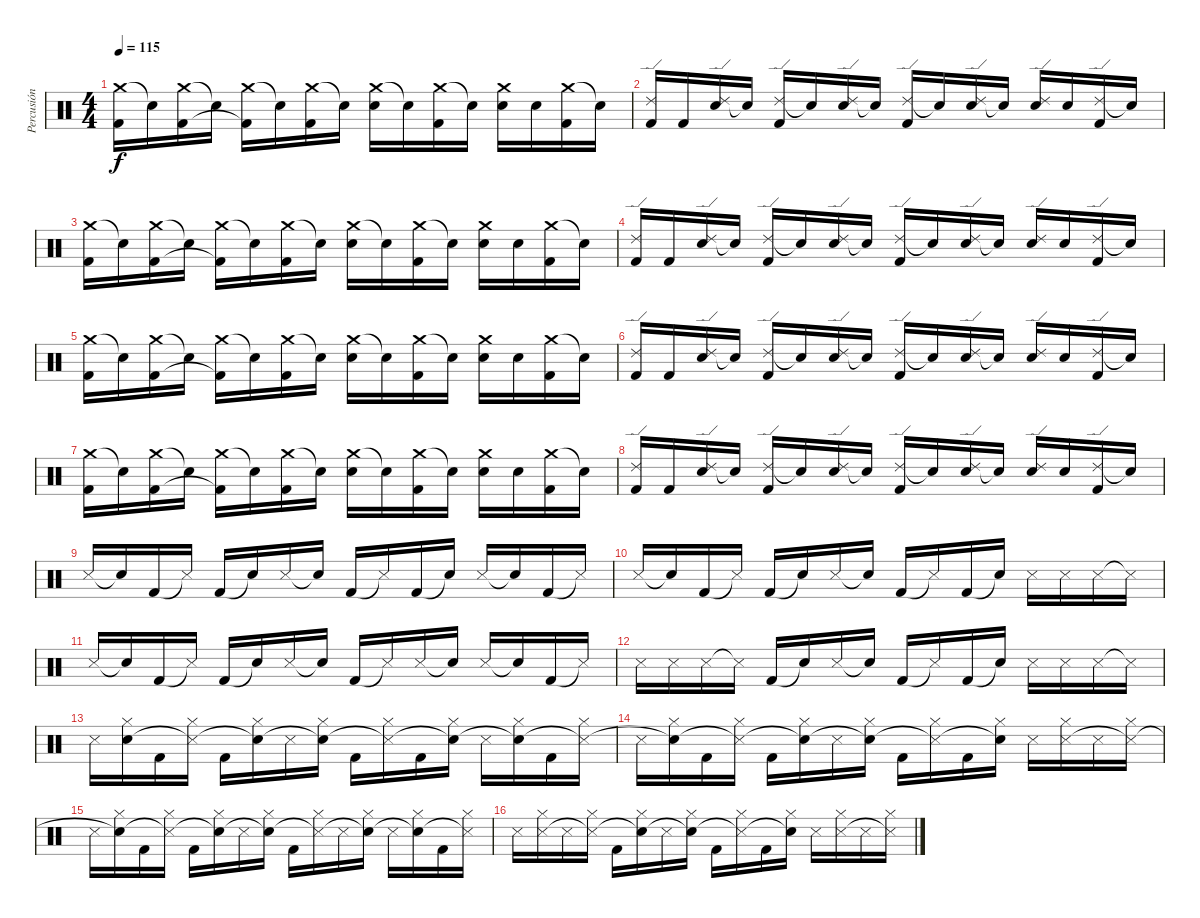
\track ("Percusión" "Percusión") {instrument percussion}
\staff {score}
\articulation defaults
\ts (4 4)
\tempo 115
\clef neutral
\ks c
("Crash medium (hit)" "Kick (hit) 2").16{dy f} "Snare (hit)"{t}.16 ("Crash medium (hit)" "Kick (hit) 2").16 "Snare (hit)"{t}.16 ("Crash medium (hit)" "Kick (hit) 2"{t}).16 "Snare (hit)"{t}.16 ("Crash medium (hit)" "Kick (hit) 2").16 "Snare (hit)"{t}.16 ("Crash medium (hit)" "Electric Snare (hit)").16 "Snare (hit)"{t}.16 ("Crash medium (hit)" "Kick (hit) 2").16 "Snare (hit)"{t}.16 ("Crash medium (hit)" "Electric Snare (hit)").16 "Electric Snare (hit)".16 ("Crash medium (hit)" "Kick (hit) 2").16 "Electric Snare (hit)"{t}.16 |
("Ride (edge) 2" "Kick (hit) 2").16 "Kick (hit) 2".16 ("Ride (edge) 2" "Electric Snare (hit)").16 "Snare (hit)"{t}.16 ("Ride (edge) 2" "Kick (hit) 2").16 "Snare (hit)"{t}.16 ("Ride (edge) 2" "Electric Snare (hit)").16 "Snare (hit)"{t}.16 ("Ride (edge) 2" "Kick (hit) 2").16 "Snare (hit)"{t}.16 ("Ride (edge) 2" "Electric Snare (hit)").16 "Snare (hit)"{t}.16 ("Ride (edge) 2" "Electric Snare (hit)").16 "Electric Snare (hit)".16 ("Ride (edge) 2" "Kick (hit) 2").16 "Snare (hit)"{t}.16 |
("Crash medium (hit)" "Kick (hit) 2").16 "Snare (hit)"{t}.16 ("Crash medium (hit)" "Kick (hit) 2").16 "Snare (hit)"{t}.16 ("Crash medium (hit)" "Kick (hit) 2"{t}).16 "Snare (hit)"{t}.16 ("Crash medium (hit)" "Kick (hit) 2").16 "Snare (hit)"{t}.16 ("Crash medium (hit)" "Electric Snare (hit)").16 "Snare (hit)"{t}.16 ("Crash medium (hit)" "Kick (hit) 2").16 "Snare (hit)"{t}.16 ("Crash medium (hit)" "Electric Snare (hit)").16 "Electric Snare (hit)".16 ("Crash medium (hit)" "Kick (hit) 2").16 "Electric Snare (hit)"{t}.16 |
("Ride (edge) 2" "Kick (hit) 2").16 "Kick (hit) 2".16 ("Ride (edge) 2" "Electric Snare (hit)").16 "Snare (hit)"{t}.16 ("Ride (edge) 2" "Kick (hit) 2").16 "Snare (hit)"{t}.16 ("Ride (edge) 2" "Electric Snare (hit)").16 "Snare (hit)"{t}.16 ("Ride (edge) 2" "Kick (hit) 2").16 "Snare (hit)"{t}.16 ("Ride (edge) 2" "Electric Snare (hit)").16 "Snare (hit)"{t}.16 ("Ride (edge) 2" "Electric Snare (hit)").16 "Electric Snare (hit)".16 ("Ride (edge) 2" "Kick (hit) 2").16 "Snare (hit)"{t}.16 |
("Crash medium (hit)" "Kick (hit) 2").16 "Snare (hit)"{t}.16 ("Crash medium (hit)" "Kick (hit) 2").16 "Snare (hit)"{t}.16 ("Crash medium (hit)" "Kick (hit) 2"{t}).16 "Snare (hit)"{t}.16 ("Crash medium (hit)" "Kick (hit) 2").16 "Snare (hit)"{t}.16 ("Crash medium (hit)" "Electric Snare (hit)").16 "Snare (hit)"{t}.16 ("Crash medium (hit)" "Kick (hit) 2").16 "Snare (hit)"{t}.16 ("Crash medium (hit)" "Electric Snare (hit)").16 "Electric Snare (hit)".16 ("Crash medium (hit)" "Kick (hit) 2").16 "Electric Snare (hit)"{t}.16 |
("Ride (edge) 2" "Kick (hit) 2").16 "Kick (hit) 2".16 ("Ride (edge) 2" "Electric Snare (hit)").16 "Snare (hit)"{t}.16 ("Ride (edge) 2" "Kick (hit) 2").16 "Snare (hit)"{t}.16 ("Ride (edge) 2" "Electric Snare (hit)").16 "Snare (hit)"{t}.16 ("Ride (edge) 2" "Kick (hit) 2").16 "Snare (hit)"{t}.16 ("Ride (edge) 2" "Electric Snare (hit)").16 "Snare (hit)"{t}.16 ("Ride (edge) 2" "Electric Snare (hit)").16 "Electric Snare (hit)".16 ("Ride (edge) 2" "Kick (hit) 2").16 "Snare (hit)"{t}.16 |
("Crash medium (hit)" "Kick (hit) 2").16 "Snare (hit)"{t}.16 ("Crash medium (hit)" "Kick (hit) 2").16 "Snare (hit)"{t}.16 ("Crash medium (hit)" "Kick (hit) 2"{t}).16 "Snare (hit)"{t}.16 ("Crash medium (hit)" "Kick (hit) 2").16 "Snare (hit)"{t}.16 ("Crash medium (hit)" "Electric Snare (hit)").16 "Snare (hit)"{t}.16 ("Crash medium (hit)" "Kick (hit) 2").16 "Snare (hit)"{t}.16 ("Crash medium (hit)" "Electric Snare (hit)").16 "Electric Snare (hit)".16 ("Crash medium (hit)" "Kick (hit) 2").16 "Electric Snare (hit)"{t}.16 |
("Ride (edge) 2" "Kick (hit) 2").16 "Kick (hit) 2".16 ("Ride (edge) 2" "Electric Snare (hit)").16 "Snare (hit)"{t}.16 ("Ride (edge) 2" "Kick (hit) 2").16 "Snare (hit)"{t}.16 ("Ride (edge) 2" "Electric Snare (hit)").16 "Snare (hit)"{t}.16 ("Ride (edge) 2" "Kick (hit) 2").16 "Snare (hit)"{t}.16 ("Ride (edge) 2" "Electric Snare (hit)").16 "Snare (hit)"{t}.16 ("Ride (edge) 2" "Electric Snare (hit)").16 "Electric Snare (hit)".16 ("Ride (edge) 2" "Kick (hit) 2").16 "Snare (hit)"{t}.16 |
"Snare (side stick) 3".16 "Snare (hit)"{t}.16 "Kick (hit) 2".16 "Snare (side stick) 3"{t}.16 "Kick (hit) 2".16 "Snare (hit)"{t}.16 "Snare (side stick) 3".16 "Snare (hit)"{t}.16 "Kick (hit) 2".16 "Snare (side stick) 3"{t}.16 "Kick (hit) 2".16 "Snare (hit)"{t}.16 "Snare (side stick) 3".16 "Snare (hit)"{t}.16 "Kick (hit) 2".16 "Snare (side stick) 3"{t}.16 |
"Snare (side stick) 3".16 "Snare (hit)"{t}.16 "Kick (hit) 2".16 "Snare (side stick) 3"{t}.16 "Kick (hit) 2".16 "Snare (hit)"{t}.16 "Snare (side stick) 3".16 "Snare (hit)"{t}.16 "Kick (hit) 2".16 "Snare (side stick) 3"{t}.16 "Kick (hit) 2".16 "Snare (hit)"{t}.16 "Snare (side stick) 3".16 "Snare (side stick) 3".16 "Snare (side stick) 3".16 "Snare (side stick) 3"{t}.16 |
"Snare (side stick) 3".16 "Snare (hit)"{t}.16 "Kick (hit) 2".16 "Snare (side stick) 3"{t}.16 "Kick (hit) 2".16 "Snare (hit)"{t}.16 "Snare (side stick) 3".16 "Snare (hit)"{t}.16 "Kick (hit) 2".16 "Snare (side stick) 3"{t}.16 "Snare (side stick) 3".16 "Snare (hit)"{t}.16 "Snare (side stick) 3".16 "Snare (hit)"{t}.16 "Kick (hit) 2".16 "Snare (side stick) 3"{t}.16 |
"Snare (side stick) 3".16 "Snare (side stick) 3".16 "Snare (side stick) 3".16 "Snare (side stick) 3"{t}.16 "Kick (hit) 2".16 "Snare (hit)"{t}.16 "Snare (side stick) 3".16 "Snare (hit)"{t}.16 "Kick (hit) 2".16 "Snare (side stick) 3"{t}.16 "Kick (hit) 2".16 "Snare (hit)"{t}.16 "Snare (side stick) 3".16 "Snare (side stick) 3".16 "Snare (side stick) 3".16 "Snare (side stick) 3"{t}.16 |
"Snare (side stick) 3".16 ("Hi-Hat (closed)" "Snare (hit)").16 "Kick (hit) 2".16 ("Hi-Hat (closed)" "Snare (side stick) 3"{t}).16 "Kick (hit) 2".16 ("Hi-Hat (closed)" "Snare (hit)"{t}).16 "Snare (side stick) 3".16 ("Hi-Hat (closed)" "Snare (hit)"{t}).16 "Kick (hit) 2".16 ("Hi-Hat (closed)" "Snare (side stick) 3"{t}).16 "Kick (hit) 2".16 ("Hi-Hat (closed)" "Snare (hit)"{t}).16 "Snare (side stick) 3".16 ("Hi-Hat (closed)" "Snare (hit)"{t}).16 "Kick (hit) 2".16 ("Hi-Hat (closed)" "Snare (side stick) 3"{t}).16 |
"Snare (side stick) 3".16 ("Hi-Hat (closed)" "Snare (hit)"{t}).16 "Kick (hit) 2".16 ("Hi-Hat (closed)" "Snare (side stick) 3"{t}).16 "Kick (hit) 2".16 ("Hi-Hat (closed)" "Snare (hit)"{t}).16 "Snare (side stick) 3".16 ("Hi-Hat (closed)" "Snare (hit)"{t}).16 "Kick (hit) 2".16 ("Hi-Hat (closed)" "Snare (side stick) 3"{t}).16 "Kick (hit) 2".16 ("Hi-Hat (closed)" "Snare (hit)"{t}).16 "Snare (side stick) 3".16 ("Hi-Hat (closed)" "Snare (side stick) 3").16 "Snare (side stick) 3".16 ("Hi-Hat (closed)" "Snare (side stick) 3"{t}).16 |
"Snare (side stick) 3".16 ("Hi-Hat (closed)" "Snare (hit)"{t}).16 "Kick (hit) 2".16 ("Hi-Hat (closed)" "Snare (side stick) 3"{t}).16 "Kick (hit) 2".16 ("Hi-Hat (closed)" "Snare (hit)"{t}).16 "Snare (side stick) 3".16 ("Hi-Hat (closed)" "Snare (hit)"{t}).16 "Kick (hit) 2".16 ("Hi-Hat (closed)" "Snare (side stick) 3"{t}).16 "Snare (side stick) 3".16 ("Hi-Hat (closed)" "Snare (hit)"{t}).16 "Snare (side stick) 3".16 ("Hi-Hat (closed)" "Snare (hit)"{t}).16 "Kick (hit) 2".16 ("Hi-Hat (closed)" "Snare (side stick) 3"{t}).16 |
"Snare (side stick) 3".16 ("Hi-Hat (closed)" "Snare (side stick) 3").16 "Snare (side stick) 3".16 ("Hi-Hat (closed)" "Snare (side stick) 3"{t}).16 "Kick (hit) 2".16 ("Hi-Hat (closed)" "Snare (hit)"{t}).16 "Snare (side stick) 3".16 ("Hi-Hat (closed)" "Snare (hit)"{t}).16 "Kick (hit) 2".16 ("Hi-Hat (closed)" "Snare (side stick) 3"{t}).16 "Kick (hit) 2".16 ("Hi-Hat (closed)" "Snare (hit)"{t}).16 "Snare (side stick) 3".16 ("Hi-Hat (closed)" "Snare (side stick) 3").16 "Snare (side stick) 3".16 ("Hi-Hat (closed)" "Snare (side stick) 3"{t}).16
